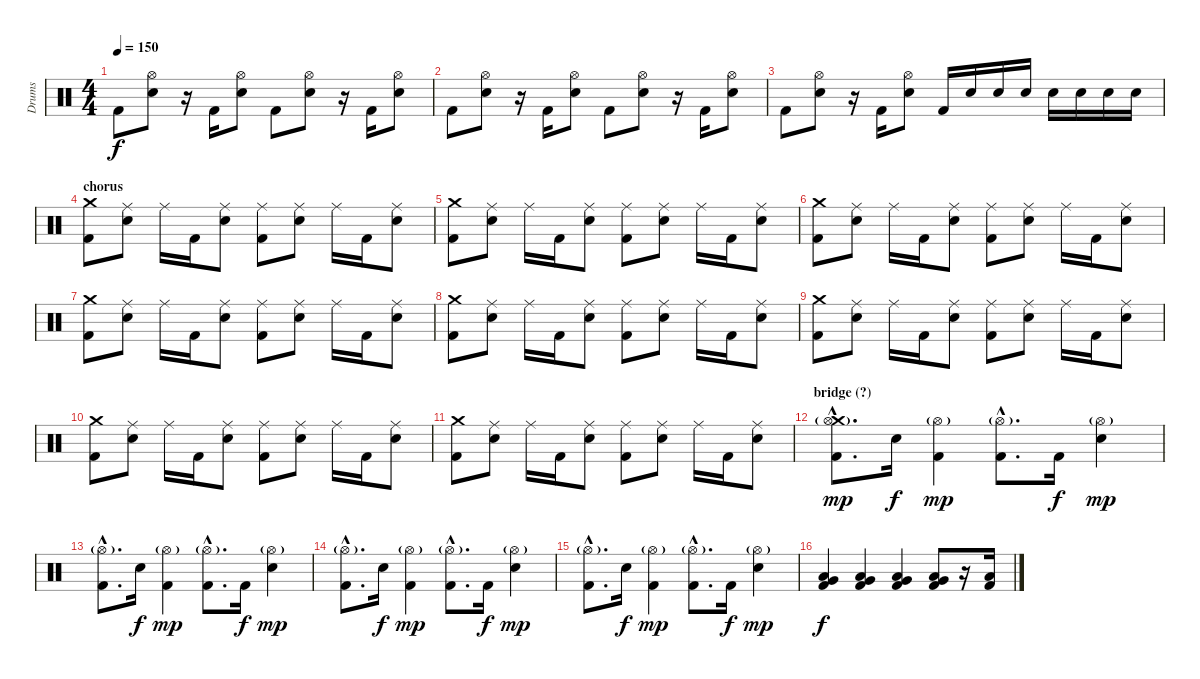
\track ("Drums" "Drums") {instrument percussion}
\staff {score}
\articulation defaults
\ts (4 4)
\tempo 150
\clef neutral
\ks c "Kick (hit) 2".8{dy f}
("Hi-Hat (open)" "Electric Snare (hit)").8 r.16 "Kick (hit) 2".16 ("Hi-Hat (open)" "Electric Snare (hit)").8 "Kick (hit) 2".8 ("Hi-Hat (open)" "Electric Snare (hit)").8 r.16 "Kick (hit) 2".16 ("Hi-Hat (open)" "Electric Snare (hit)").8 |
"Kick (hit) 2".8 ("Hi-Hat (open)" "Electric Snare (hit)").8 r.16 "Kick (hit) 2".16 ("Hi-Hat (open)" "Electric Snare (hit)").8 "Kick (hit) 2".8 ("Hi-Hat (open)" "Electric Snare (hit)").8 r.16 "Kick (hit) 2".16 ("Hi-Hat (open)" "Electric Snare (hit)").8 |
"Kick (hit) 2".8 ("Hi-Hat (open)" "Electric Snare (hit)").8 r.16 "Kick (hit) 2".16 ("Hi-Hat (open)" "Electric Snare (hit)").8 "Kick (hit) 2".16 "Electric Snare (hit)".16 "Electric Snare (hit)".16 "Electric Snare (hit)".16 "Electric Snare (hit)".16 "Electric Snare (hit)".16 "Electric Snare (hit)".16 "Electric Snare (hit)".16 |
\section ("" "chorus")
("Crash medium (hit)" "Kick (hit) 2").8 ("Ride (middle)" "Electric Snare (hit)").8 "Ride (middle)".16 "Kick (hit) 2".16 ("Ride (middle)" "Electric Snare (hit)").8 ("Ride (middle)" "Kick (hit) 2").8 ("Ride (middle)" "Electric Snare (hit)").8 "Ride (middle)".16 "Kick (hit) 2".16 ("Ride (middle)" "Electric Snare (hit)").8 |
("Crash medium (hit)" "Kick (hit) 2").8 ("Ride (middle)" "Electric Snare (hit)").8 "Ride (middle)".16 "Kick (hit) 2".16 ("Ride (middle)" "Electric Snare (hit)").8 ("Ride (middle)" "Kick (hit) 2").8 ("Ride (middle)" "Electric Snare (hit)").8 "Ride (middle)".16 "Kick (hit) 2".16 ("Ride (middle)" "Electric Snare (hit)").8 |
("Crash medium (hit)" "Kick (hit) 2").8 ("Ride (middle)" "Electric Snare (hit)").8 "Ride (middle)".16 "Kick (hit) 2".16 ("Ride (middle)" "Electric Snare (hit)").8 ("Ride (middle)" "Kick (hit) 2").8 ("Ride (middle)" "Electric Snare (hit)").8 "Ride (middle)".16 "Kick (hit) 2".16 ("Ride (middle)" "Electric Snare (hit)").8 |
("Crash medium (hit)" "Kick (hit) 2").8 ("Ride (middle)" "Electric Snare (hit)").8 "Ride (middle)".16 "Kick (hit) 2".16 ("Ride (middle)" "Electric Snare (hit)").8 ("Ride (middle)" "Kick (hit) 2").8 ("Ride (middle)" "Electric Snare (hit)").8 "Ride (middle)".16 "Kick (hit) 2".16 ("Ride (middle)" "Electric Snare (hit)").8 |
("Crash medium (hit)" "Kick (hit) 2").8 ("Ride (middle)" "Electric Snare (hit)").8 "Ride (middle)".16 "Kick (hit) 2".16 ("Ride (middle)" "Electric Snare (hit)").8 ("Ride (middle)" "Kick (hit) 2").8 ("Ride (middle)" "Electric Snare (hit)").8 "Ride (middle)".16 "Kick (hit) 2".16 ("Ride (middle)" "Electric Snare (hit)").8 |
("Crash medium (hit)" "Kick (hit) 2").8 ("Ride (middle)" "Electric Snare (hit)").8 "Ride (middle)".16 "Kick (hit) 2".16 ("Ride (middle)" "Electric Snare (hit)").8 ("Ride (middle)" "Kick (hit) 2").8 ("Ride (middle)" "Electric Snare (hit)").8 "Ride (middle)".16 "Kick (hit) 2".16 ("Ride (middle)" "Electric Snare (hit)").8 |
("Crash medium (hit)" "Kick (hit) 2").8 ("Ride (middle)" "Electric Snare (hit)").8 "Ride (middle)".16 "Kick (hit) 2".16 ("Ride (middle)" "Electric Snare (hit)").8 ("Ride (middle)" "Kick (hit) 2").8 ("Ride (middle)" "Electric Snare (hit)").8 "Ride (middle)".16 "Kick (hit) 2".16 ("Ride (middle)" "Electric Snare (hit)").8 |
("Crash medium (hit)" "Kick (hit) 2").8 ("Ride (middle)" "Electric Snare (hit)").8 "Ride (middle)".16 "Kick (hit) 2".16 ("Ride (middle)" "Electric Snare (hit)").8 ("Ride (middle)" "Kick (hit) 2").8 ("Ride (middle)" "Electric Snare (hit)").8 "Ride (middle)".16 "Kick (hit) 2".16 ("Ride (middle)" "Electric Snare (hit)").8 |
\section ("" "bridge (?)")
("Crash medium (hit)"{hac} "Hi-Hat (open)"{g hac} "Kick (hit) 2"{hac}).8{d dy mp} "Electric Snare (hit)".16{dy f} ("Hi-Hat (open)"{g} "Kick (hit) 2").4{dy mp} ("Hi-Hat (open)"{g hac} "Kick (hit) 2"{hac}).8{d} "Kick (hit) 2".16{dy f} ("Hi-Hat (open)"{g} "Electric Snare (hit)").4{dy mp} |
("Hi-Hat (open)"{g hac} "Kick (hit) 2"{hac}).8{d} "Electric Snare (hit)".16{dy f} ("Hi-Hat (open)"{g} "Kick (hit) 2").4{dy mp} ("Hi-Hat (open)"{g hac} "Kick (hit) 2"{hac}).8{d} "Kick (hit) 2".16{dy f} ("Hi-Hat (open)"{g} "Electric Snare (hit)").4{dy mp} |
("Hi-Hat (open)"{g hac} "Kick (hit) 2"{hac}).8{d} "Electric Snare (hit)".16{dy f} ("Hi-Hat (open)"{g} "Kick (hit) 2").4{dy mp} ("Hi-Hat (open)"{g hac} "Kick (hit) 2"{hac}).8{d} "Kick (hit) 2".16{dy f} ("Hi-Hat (open)"{g} "Electric Snare (hit)").4{dy mp} |
("Hi-Hat (open)"{g hac} "Kick (hit) 2"{hac}).8{d} "Electric Snare (hit)".16{dy f} ("Hi-Hat (open)"{g} "Kick (hit) 2").4{dy mp} ("Hi-Hat (open)"{g hac} "Kick (hit) 2"{hac}).8{d} "Kick (hit) 2".16{dy f} ("Hi-Hat (open)"{g} "Electric Snare (hit)").4{dy mp} |
("Very Low Tom (hit)" "Low Floor Tom (hit)" "Kick (hit) 2").4{dy f} ("Very Low Tom (hit)" "Low Floor Tom (hit)" "Kick (hit) 2").4 ("Very Low Tom (hit)" "Low Floor Tom (hit)" "Kick (hit) 2").4 ("Very Low Tom (hit)" "Low Floor Tom (hit)" "Kick (hit) 2").8 r.16 ("Low Tom (hit)" "Kick (hit) 2").16
